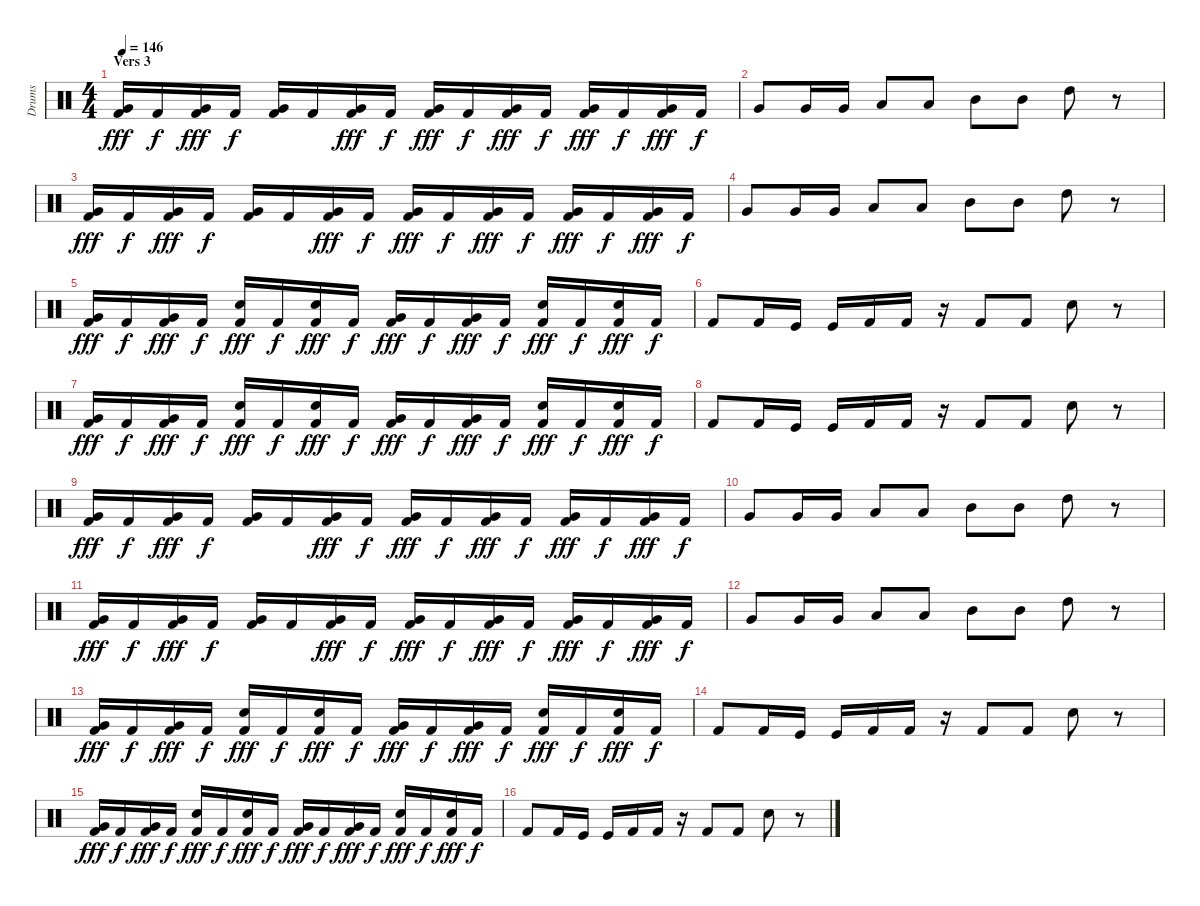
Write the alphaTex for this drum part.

\track ("Drums" "Drums") {instrument percussion}
\staff {score}
\articulation defaults
\ts (4 4)
\section ("" "Vers 3")
\tempo 146
\clef neutral
\ks c
("Very Low Tom (hit)" "Kick (hit) 2").16{dy fff} "Kick (hit) 2".16{dy f} ("Very Low Tom (hit)" "Kick (hit) 2").16{dy fff} "Kick (hit) 2".16{dy f} ("Very Low Tom (hit)" "Kick (hit) 2").16 "Kick (hit) 2".16 ("Very Low Tom (hit)" "Kick (hit) 2").16{dy fff} "Kick (hit) 2".16{dy f} ("Very Low Tom (hit)" "Kick (hit) 2").16{dy fff} "Kick (hit) 2".16{dy f} ("Very Low Tom (hit)" "Kick (hit) 2").16{dy fff} "Kick (hit) 2".16{dy f} ("Very Low Tom (hit)" "Kick (hit) 2").16{dy fff} "Kick (hit) 2".16{dy f} ("Very Low Tom (hit)" "Kick (hit) 2").16{dy fff} "Kick (hit) 2".16{dy f} |
"Very Low Tom (hit)".8 "Very Low Tom (hit)".16 "Very Low Tom (hit)".16 "Low Tom (hit)".8 "Low Tom (hit)".8 "Mid Tom (hit)".8 "Mid Tom (hit)".8 "High Tom (hit)".8 r.8 |
("Very Low Tom (hit)" "Kick (hit) 2").16{dy fff} "Kick (hit) 2".16{dy f} ("Very Low Tom (hit)" "Kick (hit) 2").16{dy fff} "Kick (hit) 2".16{dy f} ("Very Low Tom (hit)" "Kick (hit) 2").16 "Kick (hit) 2".16 ("Very Low Tom (hit)" "Kick (hit) 2").16{dy fff} "Kick (hit) 2".16{dy f} ("Very Low Tom (hit)" "Kick (hit) 2").16{dy fff} "Kick (hit) 2".16{dy f} ("Very Low Tom (hit)" "Kick (hit) 2").16{dy fff} "Kick (hit) 2".16{dy f} ("Very Low Tom (hit)" "Kick (hit) 2").16{dy fff} "Kick (hit) 2".16{dy f} ("Very Low Tom (hit)" "Kick (hit) 2").16{dy fff} "Kick (hit) 2".16{dy f} |
"Very Low Tom (hit)".8 "Very Low Tom (hit)".16 "Very Low Tom (hit)".16 "Low Tom (hit)".8 "Low Tom (hit)".8 "Mid Tom (hit)".8 "Mid Tom (hit)".8 "High Tom (hit)".8 r.8 |
("Very Low Tom (hit)" "Kick (hit) 2").16{dy fff} "Kick (hit) 2".16{dy f} ("Very Low Tom (hit)" "Kick (hit) 2").16{dy fff} "Kick (hit) 2".16{dy f} ("Snare (hit) 2" "Kick (hit) 2").16{dy fff} "Kick (hit) 2".16{dy f} ("Snare (hit) 2" "Kick (hit) 2").16{dy fff} "Kick (hit) 2".16{dy f} ("Very Low Tom (hit)" "Kick (hit) 2").16{dy fff} "Kick (hit) 2".16{dy f} ("Very Low Tom (hit)" "Kick (hit) 2").16{dy fff} "Kick (hit) 2".16{dy f} ("Snare (hit) 2" "Kick (hit) 2").16{dy fff} "Kick (hit) 2".16{dy f} ("Snare (hit) 2" "Kick (hit) 2").16{dy fff} "Kick (hit) 2".16{dy f} |
"Kick (hit) 2".8 "Kick (hit) 2".16 "Kick (hit)".16 "Kick (hit)".16 "Kick (hit) 2".16 "Kick (hit) 2".16 r.16 "Kick (hit) 2".8 "Kick (hit) 2".8 "Snare (hit) 2".8 r.8 |
("Very Low Tom (hit)" "Kick (hit) 2").16{dy fff} "Kick (hit) 2".16{dy f} ("Very Low Tom (hit)" "Kick (hit) 2").16{dy fff} "Kick (hit) 2".16{dy f} ("Snare (hit) 2" "Kick (hit) 2").16{dy fff} "Kick (hit) 2".16{dy f} ("Snare (hit) 2" "Kick (hit) 2").16{dy fff} "Kick (hit) 2".16{dy f} ("Very Low Tom (hit)" "Kick (hit) 2").16{dy fff} "Kick (hit) 2".16{dy f} ("Very Low Tom (hit)" "Kick (hit) 2").16{dy fff} "Kick (hit) 2".16{dy f} ("Snare (hit) 2" "Kick (hit) 2").16{dy fff} "Kick (hit) 2".16{dy f} ("Snare (hit) 2" "Kick (hit) 2").16{dy fff} "Kick (hit) 2".16{dy f} |
"Kick (hit) 2".8 "Kick (hit) 2".16 "Kick (hit)".16 "Kick (hit)".16 "Kick (hit) 2".16 "Kick (hit) 2".16 r.16 "Kick (hit) 2".8 "Kick (hit) 2".8 "Snare (hit) 2".8 r.8 |
("Very Low Tom (hit)" "Kick (hit) 2").16{dy fff} "Kick (hit) 2".16{dy f} ("Very Low Tom (hit)" "Kick (hit) 2").16{dy fff} "Kick (hit) 2".16{dy f} ("Very Low Tom (hit)" "Kick (hit) 2").16 "Kick (hit) 2".16 ("Very Low Tom (hit)" "Kick (hit) 2").16{dy fff} "Kick (hit) 2".16{dy f} ("Very Low Tom (hit)" "Kick (hit) 2").16{dy fff} "Kick (hit) 2".16{dy f} ("Very Low Tom (hit)" "Kick (hit) 2").16{dy fff} "Kick (hit) 2".16{dy f} ("Very Low Tom (hit)" "Kick (hit) 2").16{dy fff} "Kick (hit) 2".16{dy f} ("Very Low Tom (hit)" "Kick (hit) 2").16{dy fff} "Kick (hit) 2".16{dy f} |
"Very Low Tom (hit)".8 "Very Low Tom (hit)".16 "Very Low Tom (hit)".16 "Low Tom (hit)".8 "Low Tom (hit)".8 "Mid Tom (hit)".8 "Mid Tom (hit)".8 "High Tom (hit)".8 r.8 |
("Very Low Tom (hit)" "Kick (hit) 2").16{dy fff} "Kick (hit) 2".16{dy f} ("Very Low Tom (hit)" "Kick (hit) 2").16{dy fff} "Kick (hit) 2".16{dy f} ("Very Low Tom (hit)" "Kick (hit) 2").16 "Kick (hit) 2".16 ("Very Low Tom (hit)" "Kick (hit) 2").16{dy fff} "Kick (hit) 2".16{dy f} ("Very Low Tom (hit)" "Kick (hit) 2").16{dy fff} "Kick (hit) 2".16{dy f} ("Very Low Tom (hit)" "Kick (hit) 2").16{dy fff} "Kick (hit) 2".16{dy f} ("Very Low Tom (hit)" "Kick (hit) 2").16{dy fff} "Kick (hit) 2".16{dy f} ("Very Low Tom (hit)" "Kick (hit) 2").16{dy fff} "Kick (hit) 2".16{dy f} |
"Very Low Tom (hit)".8 "Very Low Tom (hit)".16 "Very Low Tom (hit)".16 "Low Tom (hit)".8 "Low Tom (hit)".8 "Mid Tom (hit)".8 "Mid Tom (hit)".8 "High Tom (hit)".8 r.8 |
("Very Low Tom (hit)" "Kick (hit) 2").16{dy fff} "Kick (hit) 2".16{dy f} ("Very Low Tom (hit)" "Kick (hit) 2").16{dy fff} "Kick (hit) 2".16{dy f} ("Snare (hit) 2" "Kick (hit) 2").16{dy fff} "Kick (hit) 2".16{dy f} ("Snare (hit) 2" "Kick (hit) 2").16{dy fff} "Kick (hit) 2".16{dy f} ("Very Low Tom (hit)" "Kick (hit) 2").16{dy fff} "Kick (hit) 2".16{dy f} ("Very Low Tom (hit)" "Kick (hit) 2").16{dy fff} "Kick (hit) 2".16{dy f} ("Snare (hit) 2" "Kick (hit) 2").16{dy fff} "Kick (hit) 2".16{dy f} ("Snare (hit) 2" "Kick (hit) 2").16{dy fff} "Kick (hit) 2".16{dy f} |
"Kick (hit) 2".8 "Kick (hit) 2".16 "Kick (hit)".16 "Kick (hit)".16 "Kick (hit) 2".16 "Kick (hit) 2".16 r.16 "Kick (hit) 2".8 "Kick (hit) 2".8 "Snare (hit) 2".8 r.8 |
("Very Low Tom (hit)" "Kick (hit) 2").16{dy fff} "Kick (hit) 2".16{dy f} ("Very Low Tom (hit)" "Kick (hit) 2").16{dy fff} "Kick (hit) 2".16{dy f} ("Snare (hit) 2" "Kick (hit) 2").16{dy fff} "Kick (hit) 2".16{dy f} ("Snare (hit) 2" "Kick (hit) 2").16{dy fff} "Kick (hit) 2".16{dy f} ("Very Low Tom (hit)" "Kick (hit) 2").16{dy fff} "Kick (hit) 2".16{dy f} ("Very Low Tom (hit)" "Kick (hit) 2").16{dy fff} "Kick (hit) 2".16{dy f} ("Snare (hit) 2" "Kick (hit) 2").16{dy fff} "Kick (hit) 2".16{dy f} ("Snare (hit) 2" "Kick (hit) 2").16{dy fff} "Kick (hit) 2".16{dy f} |
"Kick (hit) 2".8 "Kick (hit) 2".16 "Kick (hit)".16 "Kick (hit)".16 "Kick (hit) 2".16 "Kick (hit) 2".16 r.16 "Kick (hit) 2".8 "Kick (hit) 2".8 "Snare (hit) 2".8 r.8
